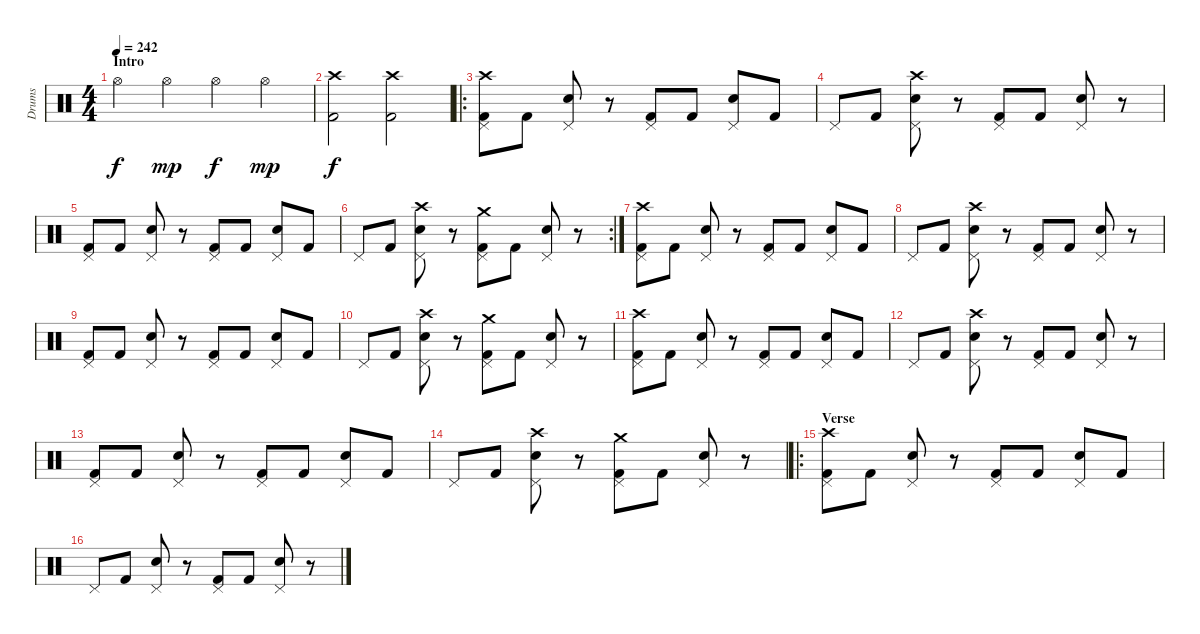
\track ("Drums" "Drums") {instrument percussion}
\staff {score}
\articulation defaults
\ts (4 4)
\section ("" "Intro")
\tempo 242
\clef neutral
\ks c "Hi-Hat (open)".4{dy f} "Hi-Hat (open)".4{dy mp} "Hi-Hat (open)".4{dy f} "Hi-Hat (open)".4{dy mp}
|
("Crash high (hit)" "Kick (hit) 2").2{dy f} ("Crash high (hit)" "Kick (hit) 2").2 |
\ro
("Pedal Hi-Hat (hit)" "Crash high (hit)" "Kick (hit) 2").8 "Kick (hit) 2".8 ("Pedal Hi-Hat (hit)" "Electric Snare (hit)").8 r.8 ("Pedal Hi-Hat (hit)" "Kick (hit) 2").8 "Kick (hit) 2".8 ("Pedal Hi-Hat (hit)" "Electric Snare (hit)").8 "Kick (hit) 2".8 |
"Pedal Hi-Hat (hit)".8 "Kick (hit) 2".8 ("Pedal Hi-Hat (hit)" "Electric Snare (hit)" "Crash high (hit)").8 r.8 ("Pedal Hi-Hat (hit)" "Kick (hit) 2").8 "Kick (hit) 2".8 ("Pedal Hi-Hat (hit)" "Electric Snare (hit)").8 r.8 |
("Pedal Hi-Hat (hit)" "Kick (hit) 2").8 "Kick (hit) 2".8 ("Pedal Hi-Hat (hit)" "Electric Snare (hit)").8 r.8 ("Pedal Hi-Hat (hit)" "Kick (hit) 2").8 "Kick (hit) 2".8 ("Pedal Hi-Hat (hit)" "Electric Snare (hit)").8 "Kick (hit) 2".8 |
\rc 2 "Pedal Hi-Hat (hit)".8 "Kick (hit) 2".8
("Pedal Hi-Hat (hit)" "Electric Snare (hit)" "Crash high (hit)").8 r.8 ("Pedal Hi-Hat (hit)" "Crash medium (hit)" "Kick (hit) 2").8 "Kick (hit) 2".8 ("Pedal Hi-Hat (hit)" "Electric Snare (hit)").8 r.8 |
("Pedal Hi-Hat (hit)" "Crash high (hit)" "Kick (hit) 2").8 "Kick (hit) 2".8 ("Pedal Hi-Hat (hit)" "Electric Snare (hit)").8 r.8 ("Pedal Hi-Hat (hit)" "Kick (hit) 2").8 "Kick (hit) 2".8 ("Pedal Hi-Hat (hit)" "Electric Snare (hit)").8 "Kick (hit) 2".8 |
"Pedal Hi-Hat (hit)".8 "Kick (hit) 2".8 ("Pedal Hi-Hat (hit)" "Electric Snare (hit)" "Crash high (hit)").8 r.8 ("Pedal Hi-Hat (hit)" "Kick (hit) 2").8 "Kick (hit) 2".8 ("Pedal Hi-Hat (hit)" "Electric Snare (hit)").8 r.8 |
("Pedal Hi-Hat (hit)" "Kick (hit) 2").8 "Kick (hit) 2".8 ("Pedal Hi-Hat (hit)" "Electric Snare (hit)").8 r.8 ("Pedal Hi-Hat (hit)" "Kick (hit) 2").8 "Kick (hit) 2".8 ("Pedal Hi-Hat (hit)" "Electric Snare (hit)").8 "Kick (hit) 2".8 |
"Pedal Hi-Hat (hit)".8 "Kick (hit) 2".8 ("Pedal Hi-Hat (hit)" "Electric Snare (hit)" "Crash high (hit)").8 r.8 ("Pedal Hi-Hat (hit)" "Crash medium (hit)" "Kick (hit) 2").8 "Kick (hit) 2".8 ("Pedal Hi-Hat (hit)" "Electric Snare (hit)").8 r.8 |
("Pedal Hi-Hat (hit)" "Crash high (hit)" "Kick (hit) 2").8 "Kick (hit) 2".8 ("Pedal Hi-Hat (hit)" "Electric Snare (hit)").8 r.8 ("Pedal Hi-Hat (hit)" "Kick (hit) 2").8 "Kick (hit) 2".8 ("Pedal Hi-Hat (hit)" "Electric Snare (hit)").8 "Kick (hit) 2".8 |
"Pedal Hi-Hat (hit)".8 "Kick (hit) 2".8 ("Pedal Hi-Hat (hit)" "Electric Snare (hit)" "Crash high (hit)").8 r.8 ("Pedal Hi-Hat (hit)" "Kick (hit) 2").8 "Kick (hit) 2".8 ("Pedal Hi-Hat (hit)" "Electric Snare (hit)").8 r.8 |
("Pedal Hi-Hat (hit)" "Kick (hit) 2").8 "Kick (hit) 2".8 ("Pedal Hi-Hat (hit)" "Electric Snare (hit)").8 r.8 ("Pedal Hi-Hat (hit)" "Kick (hit) 2").8 "Kick (hit) 2".8 ("Pedal Hi-Hat (hit)" "Electric Snare (hit)").8 "Kick (hit) 2".8 |
"Pedal Hi-Hat (hit)".8 "Kick (hit) 2".8 ("Pedal Hi-Hat (hit)" "Electric Snare (hit)" "Crash high (hit)").8 r.8 ("Pedal Hi-Hat (hit)" "Crash medium (hit)" "Kick (hit) 2").8 "Kick (hit) 2".8 ("Pedal Hi-Hat (hit)" "Electric Snare (hit)").8 r.8 |
\ro
\section ("" "Verse")
("Pedal Hi-Hat (hit)" "Crash high (hit)" "Kick (hit) 2").8 "Kick (hit) 2".8 ("Pedal Hi-Hat (hit)" "Electric Snare (hit)").8 r.8 ("Pedal Hi-Hat (hit)" "Kick (hit) 2").8 "Kick (hit) 2".8 ("Pedal Hi-Hat (hit)" "Electric Snare (hit)").8 "Kick (hit) 2".8 |
"Pedal Hi-Hat (hit)".8 "Kick (hit) 2".8 ("Pedal Hi-Hat (hit)" "Electric Snare (hit)").8 r.8 ("Pedal Hi-Hat (hit)" "Kick (hit) 2").8 "Kick (hit) 2".8 ("Pedal Hi-Hat (hit)" "Electric Snare (hit)").8 r.8
